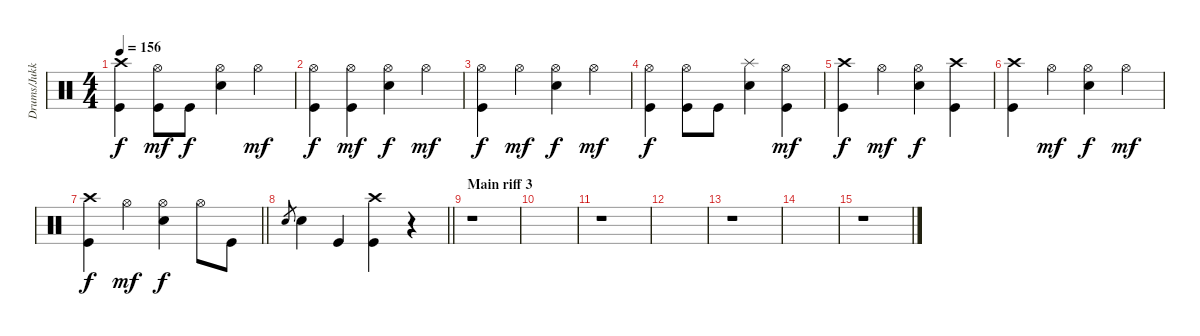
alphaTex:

\track ("Drums/Jukka" "Drums/Jukk") {instrument percussion}
\staff {score}
\articulation defaults
\ts (4 4)
\tempo 156
\clef neutral
\ks c
("Crash high (hit)" "Kick (hit)").4{dy f} ("Hi-Hat (open)" "Kick (hit)").8{dy mf} "Kick (hit)".8{dy f} ("Hi-Hat (open)" "Electric Snare (hit)").4 "Hi-Hat (open)".4{dy mf} |
("Hi-Hat (open)" "Kick (hit)").4{dy f} ("Hi-Hat (open)" "Kick (hit)").4{dy mf} ("Hi-Hat (open)" "Electric Snare (hit)").4{dy f} "Hi-Hat (open)".4{dy mf} |
("Hi-Hat (open)" "Kick (hit)").4{dy f} "Hi-Hat (open)".4{dy mf} ("Hi-Hat (open)" "Electric Snare (hit)").4{dy f} "Hi-Hat (open)".4{dy mf} |
("Hi-Hat (open)" "Kick (hit)").4{dy f} ("Hi-Hat (open)" "Kick (hit)").8 "Kick (hit)".8 ("Splash (hit)" "Electric Snare (hit)").4 ("Hi-Hat (open)" "Kick (hit)").4{dy mf} |
("Crash high (hit)" "Kick (hit)").4{dy f} "Hi-Hat (open)".4{dy mf} ("Hi-Hat (open)" "Electric Snare (hit)").4{dy f} ("Crash high (hit)" "Kick (hit)").4 |
("Crash high (hit)" "Kick (hit)").4 "Hi-Hat (open)".4{dy mf} ("Hi-Hat (open)" "Electric Snare (hit)").4{dy f} "Hi-Hat (open)".4{dy mf} |
\barLineRight lightlight
("Crash high (hit)" "Kick (hit)").4{dy f} "Hi-Hat (open)".4{dy mf} ("Hi-Hat (open)" "Electric Snare (hit)").4{dy f} "Hi-Hat (open)".8 "Kick (hit)".8 |
\barLineRight lightlight "Electric Snare (hit)".8{gr} "Electric Snare (hit)".4 "Kick (hit)".4
("Crash high (hit)" "Kick (hit)").4 r.4 |
\section ("" "Main riff 3")
r.1 |
|
r.1 |
|
r.1 |
|
r.1
